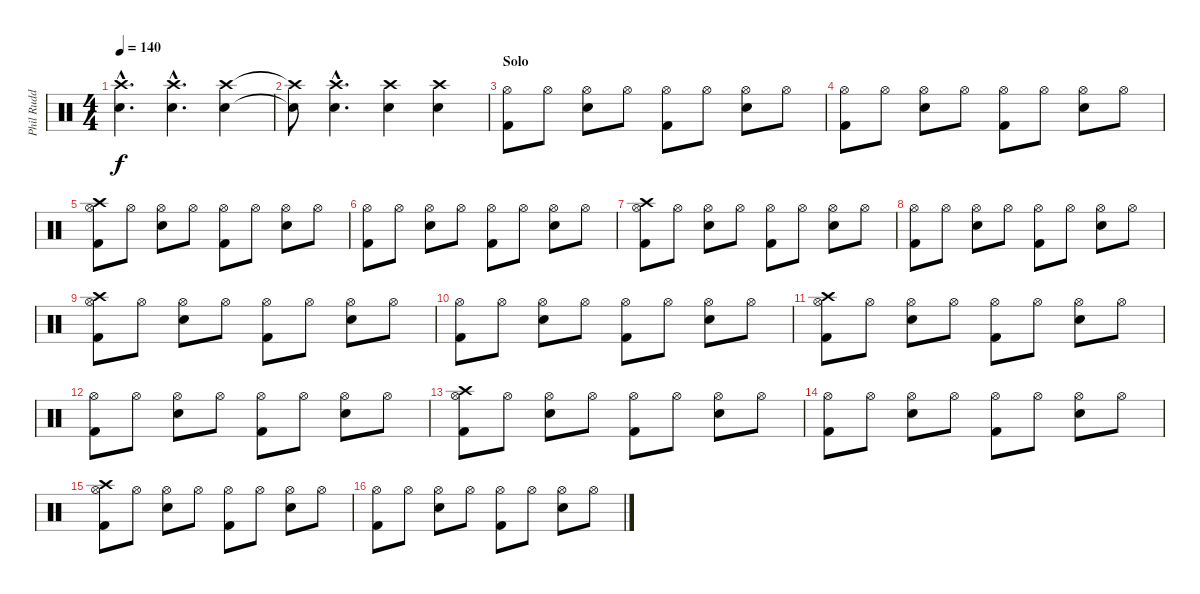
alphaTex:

\track ("Phil Rudd" "Phil Rudd") {instrument percussion}
\staff {score}
\articulation defaults
\ts (4 4)
\tempo 140
\clef neutral
\ks c
("Crash high (hit)"{hac} "Snare (hit) 2"{hac}).4{d dy f} ("Crash high (hit)"{hac} "Snare (hit) 2"{hac}).4{d} ("Crash high (hit)" "Snare (hit) 2").4 |
("Crash high (hit)"{t} "Snare (hit) 2"{t}).8 ("Crash high (hit)"{hac} "Snare (hit) 2"{hac}).4{d} ("Crash high (hit)" "Snare (hit) 2").4 ("Crash high (hit)" "Snare (hit) 2").4 |
\section ("" "Solo")
("Hi-Hat (open)" "Kick (hit) 2").8 "Hi-Hat (open)".8 ("Hi-Hat (open)" "Snare (hit) 2").8 "Hi-Hat (open)".8 ("Hi-Hat (open)" "Kick (hit) 2").8 "Hi-Hat (open)".8 ("Hi-Hat (open)" "Snare (hit) 2").8 "Hi-Hat (open)".8 |
("Hi-Hat (open)" "Kick (hit) 2").8 "Hi-Hat (open)".8 ("Hi-Hat (open)" "Snare (hit) 2").8 "Hi-Hat (open)".8 ("Hi-Hat (open)" "Kick (hit) 2").8 "Hi-Hat (open)".8 ("Hi-Hat (open)" "Snare (hit) 2").8 "Hi-Hat (open)".8 |
("Crash high (hit)" "Hi-Hat (open)" "Kick (hit) 2").8 "Hi-Hat (open)".8 ("Hi-Hat (open)" "Snare (hit) 2").8 "Hi-Hat (open)".8 ("Hi-Hat (open)" "Kick (hit) 2").8 "Hi-Hat (open)".8 ("Hi-Hat (open)" "Snare (hit) 2").8 "Hi-Hat (open)".8 |
("Hi-Hat (open)" "Kick (hit) 2").8 "Hi-Hat (open)".8 ("Hi-Hat (open)" "Snare (hit) 2").8 "Hi-Hat (open)".8 ("Hi-Hat (open)" "Kick (hit) 2").8 "Hi-Hat (open)".8 ("Hi-Hat (open)" "Snare (hit) 2").8 "Hi-Hat (open)".8 |
("Crash high (hit)" "Hi-Hat (open)" "Kick (hit) 2").8 "Hi-Hat (open)".8 ("Hi-Hat (open)" "Snare (hit) 2").8 "Hi-Hat (open)".8 ("Hi-Hat (open)" "Kick (hit) 2").8 "Hi-Hat (open)".8 ("Hi-Hat (open)" "Snare (hit) 2").8 "Hi-Hat (open)".8 |
("Hi-Hat (open)" "Kick (hit) 2").8 "Hi-Hat (open)".8 ("Hi-Hat (open)" "Snare (hit) 2").8 "Hi-Hat (open)".8 ("Hi-Hat (open)" "Kick (hit) 2").8 "Hi-Hat (open)".8 ("Hi-Hat (open)" "Snare (hit) 2").8 "Hi-Hat (open)".8 |
("Crash high (hit)" "Hi-Hat (open)" "Kick (hit) 2").8 "Hi-Hat (open)".8 ("Hi-Hat (open)" "Snare (hit) 2").8 "Hi-Hat (open)".8 ("Hi-Hat (open)" "Kick (hit) 2").8 "Hi-Hat (open)".8 ("Hi-Hat (open)" "Snare (hit) 2").8 "Hi-Hat (open)".8 |
("Hi-Hat (open)" "Kick (hit) 2").8 "Hi-Hat (open)".8 ("Hi-Hat (open)" "Snare (hit) 2").8 "Hi-Hat (open)".8 ("Hi-Hat (open)" "Kick (hit) 2").8 "Hi-Hat (open)".8 ("Hi-Hat (open)" "Snare (hit) 2").8 "Hi-Hat (open)".8 |
("Crash high (hit)" "Hi-Hat (open)" "Kick (hit) 2").8 "Hi-Hat (open)".8 ("Hi-Hat (open)" "Snare (hit) 2").8 "Hi-Hat (open)".8 ("Hi-Hat (open)" "Kick (hit) 2").8 "Hi-Hat (open)".8 ("Hi-Hat (open)" "Snare (hit) 2").8 "Hi-Hat (open)".8 |
("Hi-Hat (open)" "Kick (hit) 2").8 "Hi-Hat (open)".8 ("Hi-Hat (open)" "Snare (hit) 2").8 "Hi-Hat (open)".8 ("Hi-Hat (open)" "Kick (hit) 2").8 "Hi-Hat (open)".8 ("Hi-Hat (open)" "Snare (hit) 2").8 "Hi-Hat (open)".8 |
("Crash high (hit)" "Hi-Hat (open)" "Kick (hit) 2").8 "Hi-Hat (open)".8 ("Hi-Hat (open)" "Snare (hit) 2").8 "Hi-Hat (open)".8 ("Hi-Hat (open)" "Kick (hit) 2").8 "Hi-Hat (open)".8 ("Hi-Hat (open)" "Snare (hit) 2").8 "Hi-Hat (open)".8 |
("Hi-Hat (open)" "Kick (hit) 2").8 "Hi-Hat (open)".8 ("Hi-Hat (open)" "Snare (hit) 2").8 "Hi-Hat (open)".8 ("Hi-Hat (open)" "Kick (hit) 2").8 "Hi-Hat (open)".8 ("Hi-Hat (open)" "Snare (hit) 2").8 "Hi-Hat (open)".8 |
("Crash high (hit)" "Hi-Hat (open)" "Kick (hit) 2").8 "Hi-Hat (open)".8 ("Hi-Hat (open)" "Snare (hit) 2").8 "Hi-Hat (open)".8 ("Hi-Hat (open)" "Kick (hit) 2").8 "Hi-Hat (open)".8 ("Hi-Hat (open)" "Snare (hit) 2").8 "Hi-Hat (open)".8 |
("Hi-Hat (open)" "Kick (hit) 2").8 "Hi-Hat (open)".8 ("Hi-Hat (open)" "Snare (hit) 2").8 "Hi-Hat (open)".8 ("Hi-Hat (open)" "Kick (hit) 2").8 "Hi-Hat (open)".8 ("Hi-Hat (open)" "Snare (hit) 2").8 "Hi-Hat (open)".8
